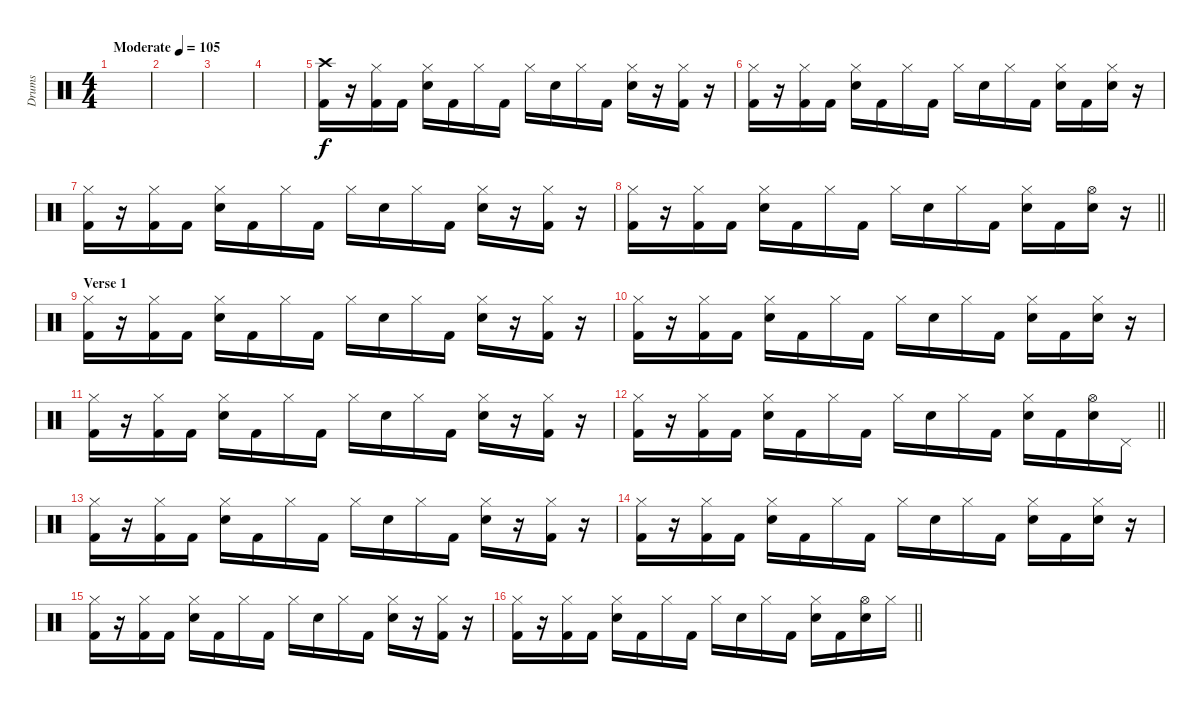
\track ("Drums" "Drums") {instrument percussion}
\staff {score}
\articulation defaults
\ts (4 4)
\tempo (105 "Moderate")
\clef neutral
\ks c
|
|
|
|
("Crash high (hit)" "Kick (hit) 2").16 r.16 ("Hi-Hat (closed)" "Kick (hit) 2").16 "Kick (hit) 2".16 ("Hi-Hat (closed)" "Electric Snare (hit)").16 "Kick (hit) 2".16 "Hi-Hat (closed)".16 "Kick (hit) 2".16 "Hi-Hat (closed)".16 "Electric Snare (hit)".16 "Hi-Hat (closed)".16 "Kick (hit) 2".16 ("Hi-Hat (closed)" "Electric Snare (hit)").16 r.16 ("Hi-Hat (closed)" "Kick (hit) 2").16 r.16 |
("Hi-Hat (closed)" "Kick (hit) 2").16 r.16 ("Hi-Hat (closed)" "Kick (hit) 2").16 "Kick (hit) 2".16 ("Hi-Hat (closed)" "Electric Snare (hit)").16 "Kick (hit) 2".16 "Hi-Hat (closed)".16 "Kick (hit) 2".16 "Hi-Hat (closed)".16 "Electric Snare (hit)".16 "Hi-Hat (closed)".16 "Kick (hit) 2".16 ("Hi-Hat (closed)" "Electric Snare (hit)").16 "Kick (hit) 2".16 ("Hi-Hat (closed)" "Electric Snare (hit)").16 r.16 |
("Hi-Hat (closed)" "Kick (hit) 2").16 r.16 ("Hi-Hat (closed)" "Kick (hit) 2").16 "Kick (hit) 2".16 ("Hi-Hat (closed)" "Electric Snare (hit)").16 "Kick (hit) 2".16 "Hi-Hat (closed)".16 "Kick (hit) 2".16 "Hi-Hat (closed)".16 "Electric Snare (hit)".16 "Hi-Hat (closed)".16 "Kick (hit) 2".16 ("Hi-Hat (closed)" "Electric Snare (hit)").16 r.16 ("Hi-Hat (closed)" "Kick (hit) 2").16 r.16 |
\barLineRight lightlight
("Hi-Hat (closed)" "Kick (hit) 2").16 r.16 ("Hi-Hat (closed)" "Kick (hit) 2").16 "Kick (hit) 2".16 ("Hi-Hat (closed)" "Electric Snare (hit)").16 "Kick (hit) 2".16 "Hi-Hat (closed)".16 "Kick (hit) 2".16 "Hi-Hat (closed)".16 "Electric Snare (hit)".16 "Hi-Hat (closed)".16 "Kick (hit) 2".16 ("Hi-Hat (closed)" "Electric Snare (hit)").16 "Kick (hit) 2".16 ("Hi-Hat (open)" "Electric Snare (hit)").16 r.16 |
\section ("" "Verse 1")
("Hi-Hat (closed)" "Kick (hit) 2").16 r.16 ("Hi-Hat (closed)" "Kick (hit) 2").16 "Kick (hit) 2".16 ("Hi-Hat (closed)" "Electric Snare (hit)").16 "Kick (hit) 2".16 "Hi-Hat (closed)".16 "Kick (hit) 2".16 "Hi-Hat (closed)".16 "Electric Snare (hit)".16 "Hi-Hat (closed)".16 "Kick (hit) 2".16 ("Hi-Hat (closed)" "Electric Snare (hit)").16 r.16 ("Hi-Hat (closed)" "Kick (hit) 2").16 r.16 |
("Hi-Hat (closed)" "Kick (hit) 2").16 r.16 ("Hi-Hat (closed)" "Kick (hit) 2").16 "Kick (hit) 2".16 ("Hi-Hat (closed)" "Electric Snare (hit)").16 "Kick (hit) 2".16 "Hi-Hat (closed)".16 "Kick (hit) 2".16 "Hi-Hat (closed)".16 "Electric Snare (hit)".16 "Hi-Hat (closed)".16 "Kick (hit) 2".16 ("Hi-Hat (closed)" "Electric Snare (hit)").16 "Kick (hit) 2".16 ("Hi-Hat (closed)" "Electric Snare (hit)").16 r.16 |
("Hi-Hat (closed)" "Kick (hit) 2").16 r.16 ("Hi-Hat (closed)" "Kick (hit) 2").16 "Kick (hit) 2".16 ("Hi-Hat (closed)" "Electric Snare (hit)").16 "Kick (hit) 2".16 "Hi-Hat (closed)".16 "Kick (hit) 2".16 "Hi-Hat (closed)".16 "Electric Snare (hit)".16 "Hi-Hat (closed)".16 "Kick (hit) 2".16 ("Hi-Hat (closed)" "Electric Snare (hit)").16 r.16 ("Hi-Hat (closed)" "Kick (hit) 2").16 r.16 |
\barLineRight lightlight
("Hi-Hat (closed)" "Kick (hit) 2").16 r.16 ("Hi-Hat (closed)" "Kick (hit) 2").16 "Kick (hit) 2".16 ("Hi-Hat (closed)" "Electric Snare (hit)").16 "Kick (hit) 2".16 "Hi-Hat (closed)".16 "Kick (hit) 2".16 "Hi-Hat (closed)".16 "Electric Snare (hit)".16 "Hi-Hat (closed)".16 "Kick (hit) 2".16 ("Hi-Hat (closed)" "Electric Snare (hit)").16 "Kick (hit) 2".16 ("Hi-Hat (open)" "Electric Snare (hit)").16 "Pedal Hi-Hat (hit)".16 |
("Hi-Hat (closed)" "Kick (hit) 2").16 r.16 ("Hi-Hat (closed)" "Kick (hit) 2").16 "Kick (hit) 2".16 ("Hi-Hat (closed)" "Electric Snare (hit)").16 "Kick (hit) 2".16 "Hi-Hat (closed)".16 "Kick (hit) 2".16 "Hi-Hat (closed)".16 "Electric Snare (hit)".16 "Hi-Hat (closed)".16 "Kick (hit) 2".16 ("Hi-Hat (closed)" "Electric Snare (hit)").16 r.16 ("Hi-Hat (closed)" "Kick (hit) 2").16 r.16 |
("Hi-Hat (closed)" "Kick (hit) 2").16 r.16 ("Hi-Hat (closed)" "Kick (hit) 2").16 "Kick (hit) 2".16 ("Hi-Hat (closed)" "Electric Snare (hit)").16 "Kick (hit) 2".16 "Hi-Hat (closed)".16 "Kick (hit) 2".16 "Hi-Hat (closed)".16 "Electric Snare (hit)".16 "Hi-Hat (closed)".16 "Kick (hit) 2".16 ("Hi-Hat (closed)" "Electric Snare (hit)").16 "Kick (hit) 2".16 ("Hi-Hat (closed)" "Electric Snare (hit)").16 r.16 |
("Hi-Hat (closed)" "Kick (hit) 2").16 r.16 ("Hi-Hat (closed)" "Kick (hit) 2").16 "Kick (hit) 2".16 ("Hi-Hat (closed)" "Electric Snare (hit)").16 "Kick (hit) 2".16 "Hi-Hat (closed)".16 "Kick (hit) 2".16 "Hi-Hat (closed)".16 "Electric Snare (hit)".16 "Hi-Hat (closed)".16 "Kick (hit) 2".16 ("Hi-Hat (closed)" "Electric Snare (hit)").16 r.16 ("Hi-Hat (closed)" "Kick (hit) 2").16 r.16 |
\barLineRight lightlight
("Hi-Hat (closed)" "Kick (hit) 2").16 r.16 ("Hi-Hat (closed)" "Kick (hit) 2").16 "Kick (hit) 2".16 ("Hi-Hat (closed)" "Electric Snare (hit)").16 "Kick (hit) 2".16 "Hi-Hat (closed)".16 "Kick (hit) 2".16 "Hi-Hat (closed)".16 "Electric Snare (hit)".16 "Hi-Hat (closed)".16 "Kick (hit) 2".16 ("Hi-Hat (closed)" "Electric Snare (hit)").16 "Kick (hit) 2".16 ("Hi-Hat (open)" "Electric Snare (hit)").16 "Hi-Hat (closed)".16
